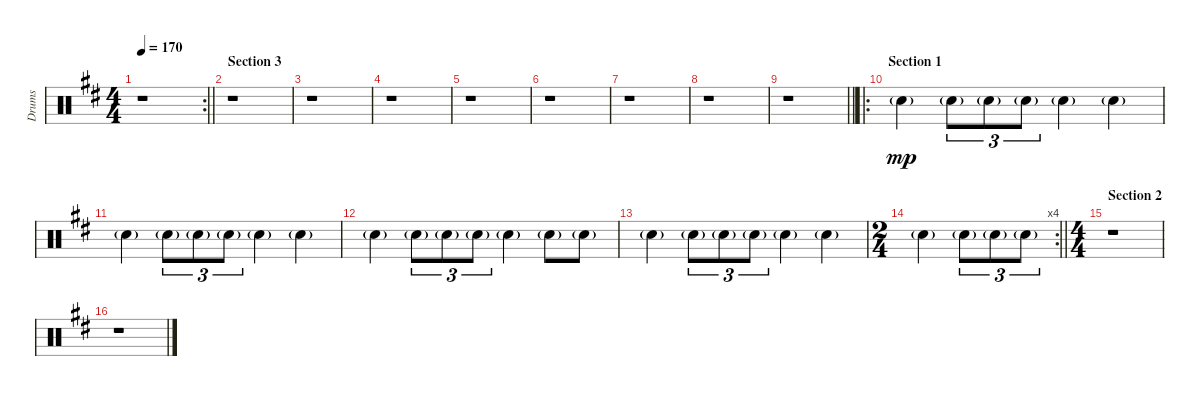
\track ("Drums" "Drums") {instrument percussion}
\staff {score}
\articulation defaults
\rc 2
\ts (4 4)
\tempo 170
\clef neutral
\barLineRight lightlight
\ks d
r.1{dy mp} |
\section ("" "Section 3")
r.1 |
r.1 |
r.1 |
r.1 |
r.1 |
r.1 |
r.1 |
\barLineRight lightlight
r.1 |
\ro
\section ("" "Section 1")
"Snare (hit) 2"{g}.4 "Snare (hit) 2"{g}.8{tu (3 2)} "Snare (hit) 2"{g}.8{tu (3 2)} "Snare (hit) 2"{g}.8{tu (3 2)} "Snare (hit) 2"{g}.4 "Snare (hit) 2"{g}.4 |
"Snare (hit) 2"{g}.4 "Snare (hit) 2"{g}.8{tu (3 2)} "Snare (hit) 2"{g}.8{tu (3 2)} "Snare (hit) 2"{g}.8{tu (3 2)} "Snare (hit) 2"{g}.4 "Snare (hit) 2"{g}.4 |
"Snare (hit) 2"{g}.4 "Snare (hit) 2"{g}.8{tu (3 2)} "Snare (hit) 2"{g}.8{tu (3 2)} "Snare (hit) 2"{g}.8{tu (3 2)} "Snare (hit) 2"{g}.4 "Snare (hit) 2"{g}.8 "Snare (hit) 2"{g}.8 |
"Snare (hit) 2"{g}.4 "Snare (hit) 2"{g}.8{tu (3 2)} "Snare (hit) 2"{g}.8{tu (3 2)} "Snare (hit) 2"{g}.8{tu (3 2)} "Snare (hit) 2"{g}.4 "Snare (hit) 2"{g}.4 |
\rc 4
\ts (2 4)
\barLineRight lightlight "Snare (hit) 2"{g}.4 "Snare (hit) 2"{g}.8{tu (3 2)} "Snare (hit) 2"{g}.8{tu (3 2)} "Snare (hit) 2"{g}.8{tu (3 2)}
|
\ts (4 4)
\section ("" "Section 2")
r.1 |
r.1
